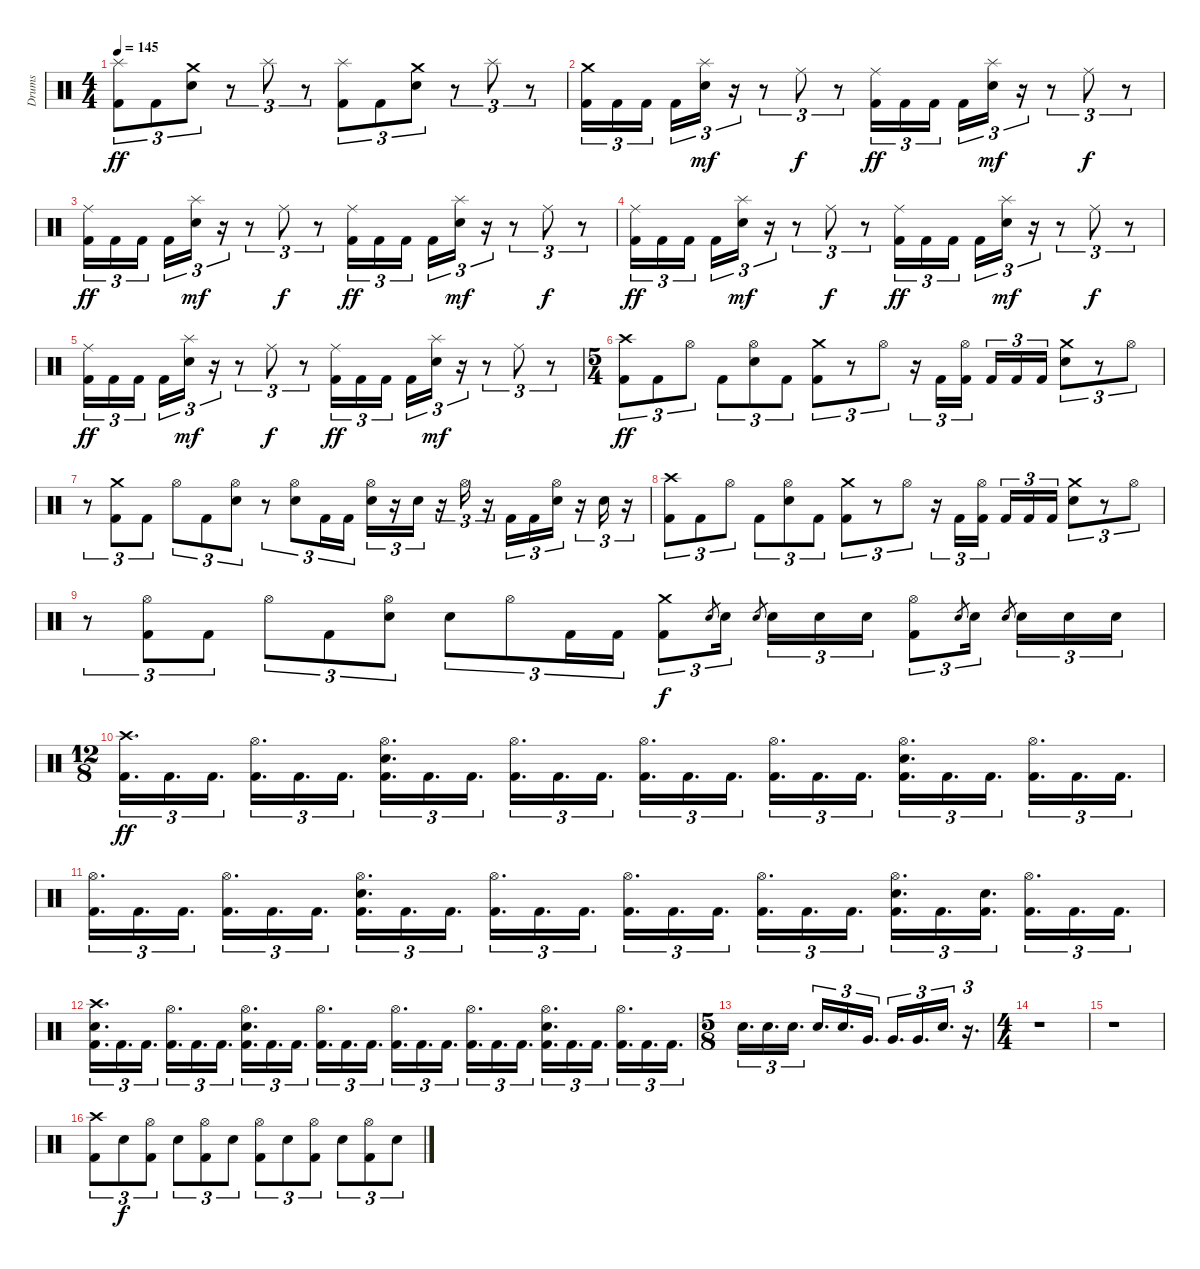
\track ("Drums" "Drums") {instrument percussion}
\staff {score}
\articulation defaults
\ts (4 4)
\tempo 145
\clef neutral
\ks c
("Splash (hit)" "Kick (hit) 2").8{tu (3 2) dy ff} "Kick (hit) 2".8{tu (3 2)} ("Crash medium (hit)" "Electric Snare (hit)").8{tu (3 2)} r.8{tu (3 2)} "Splash (hit)".8{tu (3 2)} r.8{tu (3 2)} ("Splash (hit)" "Kick (hit) 2").8{tu (3 2)} "Kick (hit) 2".8{tu (3 2)} ("Crash medium (hit)" "Electric Snare (hit)").8{tu (3 2)} r.8{tu (3 2)} "Splash (hit)".8{tu (3 2)} r.8{tu (3 2)} |
("Crash medium (hit)" "Kick (hit) 2").16{tu (3 2)} "Kick (hit) 2".16{tu (3 2)} "Kick (hit) 2".16{tu (3 2) beam splitsecondary} "Kick (hit) 2".16{tu (3 2)} ("Splash (hit)" "Electric Snare (hit)").16{tu (3 2) dy mf} r.16{tu (3 2)} r.8{tu (3 2)} "Ride (middle)".8{tu (3 2) dy f} r.8{tu (3 2)} ("Ride (middle)" "Kick (hit) 2").16{tu (3 2) dy ff} "Kick (hit) 2".16{tu (3 2)} "Kick (hit) 2".16{tu (3 2) beam splitsecondary} "Kick (hit) 2".16{tu (3 2)} ("Splash (hit)" "Electric Snare (hit)").16{tu (3 2) dy mf} r.16{tu (3 2)} r.8{tu (3 2)} "Ride (middle)".8{tu (3 2) dy f} r.8{tu (3 2)} |
("Ride (middle)" "Kick (hit) 2").16{tu (3 2) dy ff} "Kick (hit) 2".16{tu (3 2)} "Kick (hit) 2".16{tu (3 2) beam splitsecondary} "Kick (hit) 2".16{tu (3 2)} ("Splash (hit)" "Electric Snare (hit)").16{tu (3 2) dy mf} r.16{tu (3 2)} r.8{tu (3 2)} "Ride (middle)".8{tu (3 2) dy f} r.8{tu (3 2)} ("Ride (middle)" "Kick (hit) 2").16{tu (3 2) dy ff} "Kick (hit) 2".16{tu (3 2)} "Kick (hit) 2".16{tu (3 2) beam splitsecondary} "Kick (hit) 2".16{tu (3 2)} ("Splash (hit)" "Electric Snare (hit)").16{tu (3 2) dy mf} r.16{tu (3 2)} r.8{tu (3 2)} "Ride (middle)".8{tu (3 2) dy f} r.8{tu (3 2)} |
("Ride (middle)" "Kick (hit) 2").16{tu (3 2) dy ff} "Kick (hit) 2".16{tu (3 2)} "Kick (hit) 2".16{tu (3 2) beam splitsecondary} "Kick (hit) 2".16{tu (3 2)} ("Splash (hit)" "Electric Snare (hit)").16{tu (3 2) dy mf} r.16{tu (3 2)} r.8{tu (3 2)} "Ride (middle)".8{tu (3 2) dy f} r.8{tu (3 2)} ("Ride (middle)" "Kick (hit) 2").16{tu (3 2) dy ff} "Kick (hit) 2".16{tu (3 2)} "Kick (hit) 2".16{tu (3 2) beam splitsecondary} "Kick (hit) 2".16{tu (3 2)} ("Splash (hit)" "Electric Snare (hit)").16{tu (3 2) dy mf} r.16{tu (3 2)} r.8{tu (3 2)} "Ride (middle)".8{tu (3 2) dy f} r.8{tu (3 2)} |
("Ride (middle)" "Kick (hit) 2").16{tu (3 2) dy ff} "Kick (hit) 2".16{tu (3 2)} "Kick (hit) 2".16{tu (3 2) beam splitsecondary} "Kick (hit) 2".16{tu (3 2)} ("Splash (hit)" "Electric Snare (hit)").16{tu (3 2) dy mf} r.16{tu (3 2)} r.8{tu (3 2)} "Ride (middle)".8{tu (3 2) dy f} r.8{tu (3 2)} ("Ride (middle)" "Kick (hit) 2").16{tu (3 2) dy ff} "Kick (hit) 2".16{tu (3 2)} "Kick (hit) 2".16{tu (3 2) beam splitsecondary} "Kick (hit) 2".16{tu (3 2)} ("Splash (hit)" "Electric Snare (hit)").16{tu (3 2) dy mf} r.16{tu (3 2)} r.8{tu (3 2)} "Ride (middle)".8{tu (3 2)} r.8{tu (3 2)} |
\ts (5 4)
("Crash high (hit)" "Kick (hit) 2").8{tu (3 2) dy ff} "Kick (hit) 2".8{tu (3 2)} "Hi-Hat (open)".8{tu (3 2)} "Kick (hit) 2".8{tu (3 2)} ("Hi-Hat (open)" "Electric Snare (hit)").8{tu (3 2)} "Kick (hit) 2".8{tu (3 2)} ("Crash medium (hit)" "Kick (hit) 2").8{tu (3 2)} r.8{tu (3 2)} "Hi-Hat (open)".8{tu (3 2)} r.16{tu (3 2)} "Kick (hit) 2".16{tu (3 2)} ("Hi-Hat (open)" "Kick (hit) 2").16{tu (3 2) beam splitsecondary} "Kick (hit) 2".16{tu (3 2)} "Kick (hit) 2".16{tu (3 2)} "Kick (hit) 2".16{tu (3 2)} ("Crash medium (hit)" "Electric Snare (hit)").8{tu (3 2)} r.8{tu (3 2)} "Hi-Hat (open)".8{tu (3 2)} |
r.8{tu (3 2)} ("Crash medium (hit)" "Kick (hit) 2").8{tu (3 2)} "Kick (hit) 2".8{tu (3 2)} "Hi-Hat (open)".8{tu (3 2)} "Kick (hit) 2".8{tu (3 2)} ("Hi-Hat (open)" "Electric Snare (hit)").8{tu (3 2)} r.8{tu (3 2)} ("Hi-Hat (open)" "Electric Snare (hit)").8{tu (3 2)} "Kick (hit) 2".16{tu (3 2)} "Kick (hit) 2".16{tu (3 2)} ("Hi-Hat (open)" "Electric Snare (hit)").16{tu (3 2)} r.16{tu (3 2)} "Electric Snare (hit)".16{tu (3 2)} r.16{tu (3 2)} "Hi-Hat (open)".16{tu (3 2)} r.16{tu (3 2)} "Kick (hit) 2".16{tu (3 2)} "Kick (hit) 2".16{tu (3 2)} ("Hi-Hat (open)" "Electric Snare (hit)").16{tu (3 2)} r.16{tu (3 2)} "Electric Snare (hit)".16{tu (3 2)} r.16{tu (3 2)} |
("Crash high (hit)" "Kick (hit) 2").8{tu (3 2)} "Kick (hit) 2".8{tu (3 2)} "Hi-Hat (open)".8{tu (3 2)} "Kick (hit) 2".8{tu (3 2)} ("Hi-Hat (open)" "Electric Snare (hit)").8{tu (3 2)} "Kick (hit) 2".8{tu (3 2)} ("Crash medium (hit)" "Kick (hit) 2").8{tu (3 2)} r.8{tu (3 2)} "Hi-Hat (open)".8{tu (3 2)} r.16{tu (3 2)} "Kick (hit) 2".16{tu (3 2)} ("Hi-Hat (open)" "Kick (hit) 2").16{tu (3 2) beam splitsecondary} "Kick (hit) 2".16{tu (3 2)} "Kick (hit) 2".16{tu (3 2)} "Kick (hit) 2".16{tu (3 2)} ("Crash medium (hit)" "Electric Snare (hit)").8{tu (3 2)} r.8{tu (3 2)} "Hi-Hat (open)".8{tu (3 2)} |
r.8{tu (3 2)} ("Hi-Hat (open)" "Kick (hit) 2").8{tu (3 2)} "Kick (hit) 2".8{tu (3 2)} "Hi-Hat (open)".8{tu (3 2)} "Kick (hit) 2".8{tu (3 2)} ("Hi-Hat (open)" "Electric Snare (hit)").8{tu (3 2)} "Electric Snare (hit)".8{tu (3 2)} "Hi-Hat (open)".8{tu (3 2)} "Kick (hit) 2".16{tu (3 2)} "Kick (hit) 2".16{tu (3 2)} ("Crash medium (hit)" "Kick (hit) 2").8{tu (3 2) dy f} "Electric Snare (hit)".8{gr} "Electric Snare (hit)".16{tu (3 2)} "Electric Snare (hit)".8{gr beam splitsecondary} "Electric Snare (hit)".16{tu (3 2)} "Electric Snare (hit)".16{tu (3 2)} "Electric Snare (hit)".16{tu (3 2)} ("Hi-Hat (open)" "Kick (hit) 2").8{tu (3 2)} "Electric Snare (hit)".8{gr} "Electric Snare (hit)".16{tu (3 2)} "Electric Snare (hit)".8{gr beam splitsecondary} "Electric Snare (hit)".16{tu (3 2)} "Electric Snare (hit)".16{tu (3 2)} "Electric Snare (hit)".16{tu (3 2)} |
\ts (12 8)
("Crash high (hit)" "Kick (hit) 2").16{d tu (3 2) dy ff} "Kick (hit) 2".16{d tu (3 2)} "Kick (hit) 2".16{d tu (3 2)} ("Hi-Hat (open)" "Kick (hit) 2").16{d tu (3 2)} "Kick (hit) 2".16{d tu (3 2)} "Kick (hit) 2".16{d tu (3 2)} ("Hi-Hat (open)" "Electric Snare (hit)" "Kick (hit) 2").16{d tu (3 2)} "Kick (hit) 2".16{d tu (3 2)} "Kick (hit) 2".16{d tu (3 2)} ("Hi-Hat (open)" "Kick (hit) 2").16{d tu (3 2)} "Kick (hit) 2".16{d tu (3 2)} "Kick (hit) 2".16{d tu (3 2)} ("Hi-Hat (open)" "Kick (hit) 2").16{d tu (3 2)} "Kick (hit) 2".16{d tu (3 2)} "Kick (hit) 2".16{d tu (3 2)} ("Hi-Hat (open)" "Kick (hit) 2").16{d tu (3 2)} "Kick (hit) 2".16{d tu (3 2)} "Kick (hit) 2".16{d tu (3 2)} ("Hi-Hat (open)" "Electric Snare (hit)" "Kick (hit) 2").16{d tu (3 2)} "Kick (hit) 2".16{d tu (3 2)} "Kick (hit) 2".16{d tu (3 2)} ("Hi-Hat (open)" "Kick (hit) 2").16{d tu (3 2)} "Kick (hit) 2".16{d tu (3 2)} "Kick (hit) 2".16{d tu (3 2)} |
("Hi-Hat (open)" "Kick (hit) 2").16{d tu (3 2)} "Kick (hit) 2".16{d tu (3 2)} "Kick (hit) 2".16{d tu (3 2)} ("Hi-Hat (open)" "Kick (hit) 2").16{d tu (3 2)} "Kick (hit) 2".16{d tu (3 2)} "Kick (hit) 2".16{d tu (3 2)} ("Hi-Hat (open)" "Electric Snare (hit)" "Kick (hit) 2").16{d tu (3 2)} "Kick (hit) 2".16{d tu (3 2)} "Kick (hit) 2".16{d tu (3 2)} ("Hi-Hat (open)" "Kick (hit) 2").16{d tu (3 2)} "Kick (hit) 2".16{d tu (3 2)} "Kick (hit) 2".16{d tu (3 2)} ("Hi-Hat (open)" "Kick (hit) 2").16{d tu (3 2)} "Kick (hit) 2".16{d tu (3 2)} "Kick (hit) 2".16{d tu (3 2)} ("Hi-Hat (open)" "Kick (hit) 2").16{d tu (3 2)} "Kick (hit) 2".16{d tu (3 2)} "Kick (hit) 2".16{d tu (3 2)} ("Hi-Hat (open)" "Electric Snare (hit)" "Kick (hit) 2").16{d tu (3 2)} "Kick (hit) 2".16{d tu (3 2)} ("Electric Snare (hit)" "Kick (hit) 2").16{d tu (3 2)} ("Hi-Hat (open)" "Kick (hit) 2").16{d tu (3 2)} "Kick (hit) 2".16{d tu (3 2)} "Kick (hit) 2".16{d tu (3 2)} |
("Crash high (hit)" "Electric Snare (hit)" "Kick (hit) 2").16{d tu (3 2)} "Kick (hit) 2".16{d tu (3 2)} "Kick (hit) 2".16{d tu (3 2)} ("Hi-Hat (open)" "Kick (hit) 2").16{d tu (3 2)} "Kick (hit) 2".16{d tu (3 2)} "Kick (hit) 2".16{d tu (3 2)} ("Hi-Hat (open)" "Electric Snare (hit)" "Kick (hit) 2").16{d tu (3 2)} "Kick (hit) 2".16{d tu (3 2)} "Kick (hit) 2".16{d tu (3 2)} ("Hi-Hat (open)" "Kick (hit) 2").16{d tu (3 2)} "Kick (hit) 2".16{d tu (3 2)} "Kick (hit) 2".16{d tu (3 2)} ("Hi-Hat (open)" "Kick (hit) 2").16{d tu (3 2)} "Kick (hit) 2".16{d tu (3 2)} "Kick (hit) 2".16{d tu (3 2)} ("Hi-Hat (open)" "Kick (hit) 2").16{d tu (3 2)} "Kick (hit) 2".16{d tu (3 2)} "Kick (hit) 2".16{d tu (3 2)} ("Hi-Hat (open)" "Electric Snare (hit)" "Kick (hit) 2").16{d tu (3 2)} "Kick (hit) 2".16{d tu (3 2)} "Kick (hit) 2".16{d tu (3 2)} ("Hi-Hat (open)" "Kick (hit) 2").16{d tu (3 2)} "Kick (hit) 2".16{d tu (3 2)} "Kick (hit) 2".16{d tu (3 2)} |
\ts (5 8)
"Electric Snare (hit)".16{d tu (3 2)} "Electric Snare (hit)".16{d tu (3 2)} "Electric Snare (hit)".16{d tu (3 2)} "Electric Snare (hit)".16{d tu (3 2)} "Electric Snare (hit)".16{d tu (3 2)} "Very Low Tom (hit)".16{d tu (3 2)} "Very Low Tom (hit)".16{d tu (3 2)} "Very Low Tom (hit)".16{d tu (3 2)} "Electric Snare (hit)".16{d tu (3 2)} r.16{d tu (3 2)} |
\ts (4 4)
r.1 |
r.1 |
("Crash high (hit)" "Kick (hit) 2").8{tu (3 2)} "Electric Snare (hit)".8{tu (3 2) dy f} ("Hi-Hat (open)" "Kick (hit) 2").8{tu (3 2)} "Electric Snare (hit)".8{tu (3 2)} ("Hi-Hat (open)" "Kick (hit) 2").8{tu (3 2)} "Electric Snare (hit)".8{tu (3 2)} ("Hi-Hat (open)" "Kick (hit) 2").8{tu (3 2)} "Electric Snare (hit)".8{tu (3 2)} ("Hi-Hat (open)" "Kick (hit) 2").8{tu (3 2)} "Electric Snare (hit)".8{tu (3 2)} ("Hi-Hat (open)" "Kick (hit) 2").8{tu (3 2)} "Electric Snare (hit)".8{tu (3 2)}
